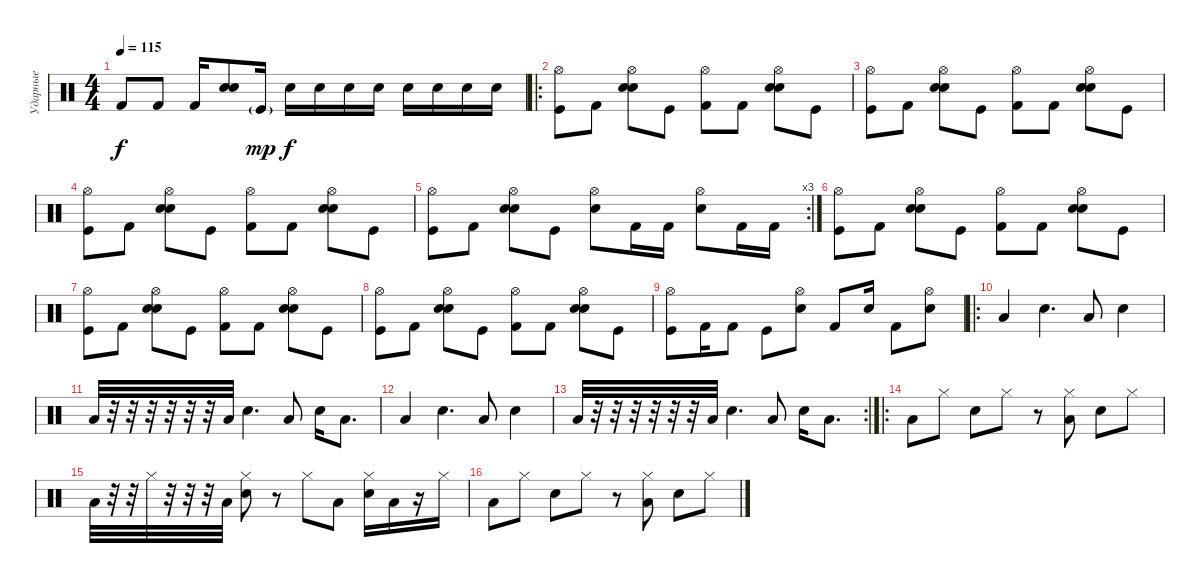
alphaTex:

\track ("Ударные" "Ударные") {instrument percussion}
\staff {score}
\articulation defaults
\ts (4 4)
\tempo 115
\clef neutral
\ks c "Kick (hit) 2".8{dy f} "Kick (hit) 2".8 "Kick (hit) 2".16
("Electric Snare (hit)" "Snare (hit) 2").8 "Kick (hit)"{g}.16{dy mp} "Snare (hit) 2".16{dy f} "Snare (hit) 2".16 "Snare (hit) 2".16 "Snare (hit) 2".16 "Snare (hit) 2".16 "Snare (hit) 2".16 "Snare (hit) 2".16 "Snare (hit) 2".16 |
\ro
("Hi-Hat (open)" "Kick (hit)").8 "Kick (hit) 2".8 ("Snare (hit) 2" "Hi-Hat (open)" "Snare (hit) 2").8 "Kick (hit)".8 ("Hi-Hat (open)" "Kick (hit) 2").8 "Kick (hit) 2".8 ("Snare (hit) 2" "Hi-Hat (open)" "Snare (hit) 2").8 "Kick (hit)".8 |
("Hi-Hat (open)" "Kick (hit)").8 "Kick (hit) 2".8 ("Snare (hit) 2" "Hi-Hat (open)" "Snare (hit) 2").8 "Kick (hit)".8 ("Hi-Hat (open)" "Kick (hit) 2").8 "Kick (hit) 2".8 ("Snare (hit) 2" "Hi-Hat (open)" "Snare (hit) 2").8 "Kick (hit)".8 |
("Hi-Hat (open)" "Kick (hit)").8 "Kick (hit) 2".8 ("Snare (hit) 2" "Hi-Hat (open)" "Snare (hit) 2").8 "Kick (hit)".8 ("Hi-Hat (open)" "Kick (hit) 2").8 "Kick (hit) 2".8 ("Snare (hit) 2" "Hi-Hat (open)" "Snare (hit) 2").8 "Kick (hit)".8 |
\rc 3
("Hi-Hat (open)" "Kick (hit)").8 "Kick (hit) 2".8 ("Snare (hit) 2" "Hi-Hat (open)" "Snare (hit) 2").8 "Kick (hit)".8 ("Hi-Hat (open)" "Snare (hit) 2").8 "Kick (hit) 2".16 "Kick (hit) 2".16 ("Hi-Hat (open)" "Snare (hit) 2").8 "Kick (hit) 2".16 "Kick (hit) 2".16 |
("Hi-Hat (open)" "Kick (hit)").8 "Kick (hit) 2".8 ("Snare (hit) 2" "Hi-Hat (open)" "Snare (hit) 2").8 "Kick (hit)".8 ("Hi-Hat (open)" "Kick (hit) 2").8 "Kick (hit) 2".8 ("Snare (hit) 2" "Hi-Hat (open)" "Snare (hit) 2").8 "Kick (hit)".8 |
("Hi-Hat (open)" "Kick (hit)").8 "Kick (hit) 2".8 ("Snare (hit) 2" "Hi-Hat (open)" "Snare (hit) 2").8 "Kick (hit)".8 ("Hi-Hat (open)" "Kick (hit) 2").8 "Kick (hit) 2".8 ("Snare (hit) 2" "Hi-Hat (open)" "Snare (hit) 2").8 "Kick (hit)".8 |
("Hi-Hat (open)" "Kick (hit)").8 "Kick (hit) 2".8 ("Snare (hit) 2" "Hi-Hat (open)" "Snare (hit) 2").8 "Kick (hit)".8 ("Hi-Hat (open)" "Kick (hit) 2").8 "Kick (hit) 2".8 ("Snare (hit) 2" "Hi-Hat (open)" "Snare (hit) 2").8 "Kick (hit)".8 |
("Hi-Hat (open)" "Kick (hit)").8 "Kick (hit) 2".16 "Kick (hit) 2".8 "Kick (hit)".8 ("Hi-Hat (open)" "Snare (hit) 2").8 "Kick (hit) 2".8 "Snare (hit) 2".16 "Kick (hit) 2".8 ("Hi-Hat (open)" "Snare (hit) 2").8 |
\ro "Low Tom (hit)".4 "Snare (hit) 2".4{d} "Low Tom (hit)".8 "Snare (hit) 2".4
|
"Low Tom (hit)".32 r.32 r.32 r.32 r.32 r.32 r.32 "Low Tom (hit)".32 "Snare (hit) 2".4{d} "Low Tom (hit)".8 "Snare (hit) 2".16 "Low Tom (hit)".8{d} |
"Low Tom (hit)".4 "Snare (hit) 2".4{d} "Low Tom (hit)".8 "Snare (hit) 2".4 |
\rc 2 "Low Tom (hit)".32
r.32 r.32 r.32 r.32 r.32 r.32 "Low Tom (hit)".32 "Snare (hit) 2".4{d} "Low Tom (hit)".8 "Snare (hit) 2".16 "Low Tom (hit)".8{d} |
\ro "Low Tom (hit)".8 "Hi-Hat (closed)".8 "Snare (hit) 2".8 "Hi-Hat (closed)".8
r.8 ("Hi-Hat (closed)" "Low Tom (hit)").8 "Snare (hit) 2".8 "Hi-Hat (closed)".8 |
"Low Tom (hit)".32 r.32 r.32 "Hi-Hat (closed)".32 r.32 r.32 r.32 "Low Tom (hit)".32 ("Hi-Hat (closed)" "Snare (hit) 2").8 r.8 "Hi-Hat (closed)".8 "Low Tom (hit)".8 ("Hi-Hat (closed)" "Snare (hit) 2").16 "Low Tom (hit)".16 r.16 "Hi-Hat (closed)".16 |
"Low Tom (hit)".8 "Hi-Hat (closed)".8 "Snare (hit) 2".8 "Hi-Hat (closed)".8 r.8 ("Hi-Hat (closed)" "Low Tom (hit)").8 "Snare (hit) 2".8 "Hi-Hat (closed)".8
